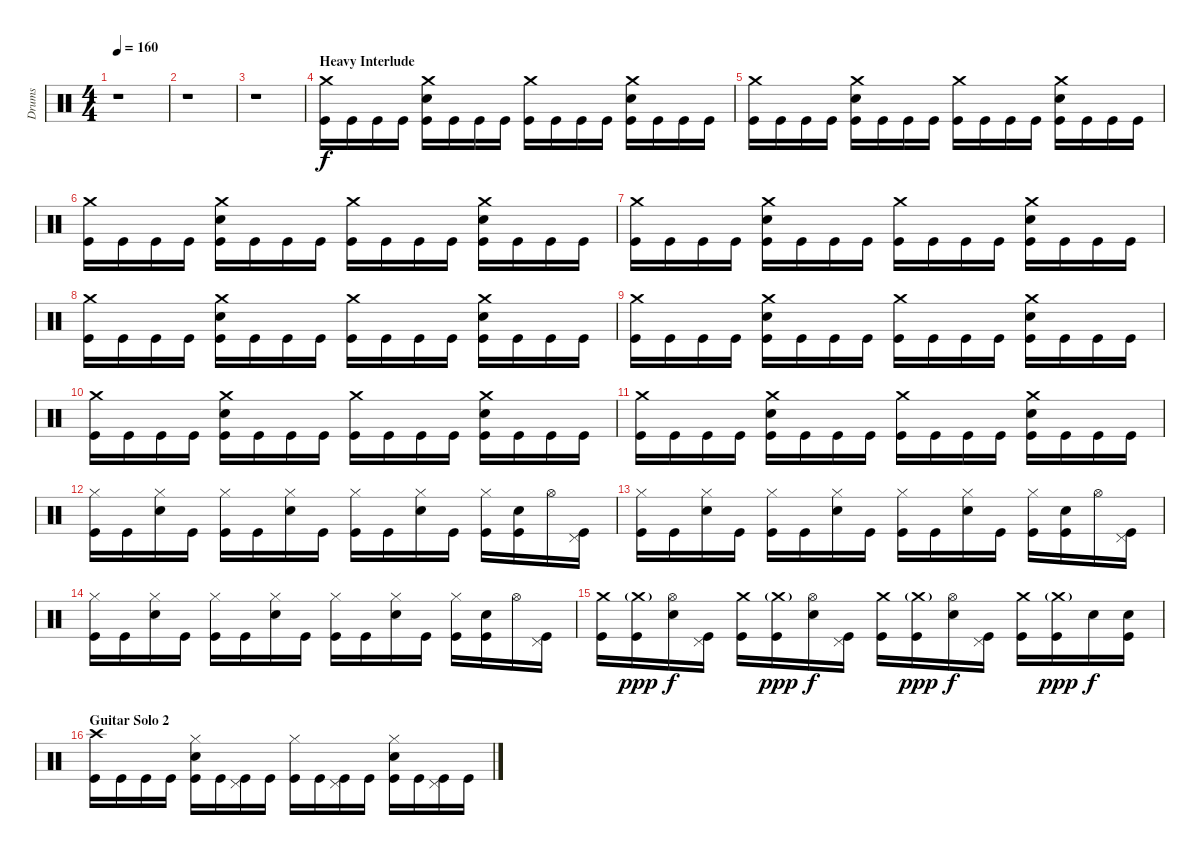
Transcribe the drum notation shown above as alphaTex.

\track ("Drums" "Drums") {instrument percussion}
\staff {score}
\articulation defaults
\ts (4 4)
\tempo 160
\clef neutral
\ks c
r.1{dy ppp} |
r.1 |
r.1 |
\section ("" "Heavy Interlude")
("Crash medium (hit)" "Kick (hit)").16{dy f volume 13} "Kick (hit)".16 "Kick (hit)".16 "Kick (hit)".16 ("Crash medium (hit)" "Electric Snare (hit)" "Kick (hit)").16 "Kick (hit)".16 "Kick (hit)".16 "Kick (hit)".16 ("Crash medium (hit)" "Kick (hit)").16 "Kick (hit)".16 "Kick (hit)".16 "Kick (hit)".16 ("Crash medium (hit)" "Electric Snare (hit)" "Kick (hit)").16 "Kick (hit)".16 "Kick (hit)".16 "Kick (hit)".16 |
("Crash medium (hit)" "Kick (hit)").16 "Kick (hit)".16 "Kick (hit)".16 "Kick (hit)".16 ("Crash medium (hit)" "Electric Snare (hit)" "Kick (hit)").16 "Kick (hit)".16 "Kick (hit)".16 "Kick (hit)".16 ("Crash medium (hit)" "Kick (hit)").16 "Kick (hit)".16 "Kick (hit)".16 "Kick (hit)".16 ("Crash medium (hit)" "Electric Snare (hit)" "Kick (hit)").16 "Kick (hit)".16 "Kick (hit)".16 "Kick (hit)".16 |
("Crash medium (hit)" "Kick (hit)").16 "Kick (hit)".16 "Kick (hit)".16 "Kick (hit)".16 ("Crash medium (hit)" "Electric Snare (hit)" "Kick (hit)").16 "Kick (hit)".16 "Kick (hit)".16 "Kick (hit)".16 ("Crash medium (hit)" "Kick (hit)").16 "Kick (hit)".16 "Kick (hit)".16 "Kick (hit)".16 ("Crash medium (hit)" "Electric Snare (hit)" "Kick (hit)").16 "Kick (hit)".16 "Kick (hit)".16 "Kick (hit)".16 |
("Crash medium (hit)" "Kick (hit)").16 "Kick (hit)".16 "Kick (hit)".16 "Kick (hit)".16 ("Crash medium (hit)" "Electric Snare (hit)" "Kick (hit)").16 "Kick (hit)".16 "Kick (hit)".16 "Kick (hit)".16 ("Crash medium (hit)" "Kick (hit)").16 "Kick (hit)".16 "Kick (hit)".16 "Kick (hit)".16 ("Crash medium (hit)" "Electric Snare (hit)" "Kick (hit)").16 "Kick (hit)".16 "Kick (hit)".16 "Kick (hit)".16 |
("Crash medium (hit)" "Kick (hit)").16 "Kick (hit)".16 "Kick (hit)".16 "Kick (hit)".16 ("Crash medium (hit)" "Electric Snare (hit)" "Kick (hit)").16 "Kick (hit)".16 "Kick (hit)".16 "Kick (hit)".16 ("Crash medium (hit)" "Kick (hit)").16 "Kick (hit)".16 "Kick (hit)".16 "Kick (hit)".16 ("Crash medium (hit)" "Electric Snare (hit)" "Kick (hit)").16 "Kick (hit)".16 "Kick (hit)".16 "Kick (hit)".16 |
("Crash medium (hit)" "Kick (hit)").16 "Kick (hit)".16 "Kick (hit)".16 "Kick (hit)".16 ("Crash medium (hit)" "Electric Snare (hit)" "Kick (hit)").16 "Kick (hit)".16 "Kick (hit)".16 "Kick (hit)".16 ("Crash medium (hit)" "Kick (hit)").16 "Kick (hit)".16 "Kick (hit)".16 "Kick (hit)".16 ("Crash medium (hit)" "Electric Snare (hit)" "Kick (hit)").16 "Kick (hit)".16 "Kick (hit)".16 "Kick (hit)".16 |
("Crash medium (hit)" "Kick (hit)").16 "Kick (hit)".16 "Kick (hit)".16 "Kick (hit)".16 ("Crash medium (hit)" "Electric Snare (hit)" "Kick (hit)").16 "Kick (hit)".16 "Kick (hit)".16 "Kick (hit)".16 ("Crash medium (hit)" "Kick (hit)").16 "Kick (hit)".16 "Kick (hit)".16 "Kick (hit)".16 ("Crash medium (hit)" "Electric Snare (hit)" "Kick (hit)").16 "Kick (hit)".16 "Kick (hit)".16 "Kick (hit)".16 |
("Crash medium (hit)" "Kick (hit)").16 "Kick (hit)".16 "Kick (hit)".16 "Kick (hit)".16 ("Crash medium (hit)" "Electric Snare (hit)" "Kick (hit)").16 "Kick (hit)".16 "Kick (hit)".16 "Kick (hit)".16 ("Crash medium (hit)" "Kick (hit)").16 "Kick (hit)".16 "Kick (hit)".16 "Kick (hit)".16 ("Crash medium (hit)" "Electric Snare (hit)" "Kick (hit)").16 "Kick (hit)".16 "Kick (hit)".16 "Kick (hit)".16 |
("Hi-Hat (closed)" "Kick (hit)").16 "Kick (hit)".16 ("Hi-Hat (closed)" "Electric Snare (hit)").16 "Kick (hit)".16 ("Hi-Hat (closed)" "Kick (hit)").16 "Kick (hit)".16 ("Hi-Hat (closed)" "Electric Snare (hit)").16 "Kick (hit)".16 ("Hi-Hat (closed)" "Kick (hit)").16 "Kick (hit)".16 ("Hi-Hat (closed)" "Electric Snare (hit)").16 "Kick (hit)".16 ("Hi-Hat (closed)" "Kick (hit)").16 ("Electric Snare (hit)" "Kick (hit)").16 "Hi-Hat (open)".16 ("Pedal Hi-Hat (hit)" "Kick (hit)").16 |
("Hi-Hat (closed)" "Kick (hit)").16 "Kick (hit)".16 ("Hi-Hat (closed)" "Electric Snare (hit)").16 "Kick (hit)".16 ("Hi-Hat (closed)" "Kick (hit)").16 "Kick (hit)".16 ("Hi-Hat (closed)" "Electric Snare (hit)").16 "Kick (hit)".16 ("Hi-Hat (closed)" "Kick (hit)").16 "Kick (hit)".16 ("Hi-Hat (closed)" "Electric Snare (hit)").16 "Kick (hit)".16 ("Hi-Hat (closed)" "Kick (hit)").16 ("Electric Snare (hit)" "Kick (hit)").16 "Hi-Hat (open)".16 ("Pedal Hi-Hat (hit)" "Kick (hit)").16 |
("Hi-Hat (closed)" "Kick (hit)").16 "Kick (hit)".16 ("Hi-Hat (closed)" "Electric Snare (hit)").16 "Kick (hit)".16 ("Hi-Hat (closed)" "Kick (hit)").16 "Kick (hit)".16 ("Hi-Hat (closed)" "Electric Snare (hit)").16 "Kick (hit)".16 ("Hi-Hat (closed)" "Kick (hit)").16 "Kick (hit)".16 ("Hi-Hat (closed)" "Electric Snare (hit)").16 "Kick (hit)".16 ("Hi-Hat (closed)" "Kick (hit)").16 ("Electric Snare (hit)" "Kick (hit)").16 "Hi-Hat (open)".16 ("Pedal Hi-Hat (hit)" "Kick (hit)").16 |
("Crash medium (hit)" "Kick (hit)").16 ("Crash medium (hit)"{g} "Kick (hit)").16{dy ppp} ("Hi-Hat (open)" "Electric Snare (hit)").16{dy f} ("Pedal Hi-Hat (hit)" "Kick (hit)").16 ("Crash medium (hit)" "Kick (hit)").16 ("Crash medium (hit)"{g} "Kick (hit)").16{dy ppp} ("Hi-Hat (open)" "Electric Snare (hit)").16{dy f} ("Pedal Hi-Hat (hit)" "Kick (hit)").16 ("Crash medium (hit)" "Kick (hit)").16 ("Crash medium (hit)"{g} "Kick (hit)").16{dy ppp} ("Hi-Hat (open)" "Electric Snare (hit)").16{dy f} ("Pedal Hi-Hat (hit)" "Kick (hit)").16 ("Crash medium (hit)" "Kick (hit)").16 ("Crash medium (hit)"{g} "Kick (hit)").16{dy ppp} "Electric Snare (hit)".16{dy f} ("Electric Snare (hit)" "Kick (hit)").16 |
\section ("" "Guitar Solo 2")
("Crash high (hit)" "Kick (hit)").16 "Kick (hit)".16 "Kick (hit)".16 "Kick (hit)".16 ("Hi-Hat (closed)" "Electric Snare (hit)" "Kick (hit)").16 "Kick (hit)".16 ("Pedal Hi-Hat (hit)" "Kick (hit)").16 "Kick (hit)".16 ("Hi-Hat (closed)" "Kick (hit)").16 "Kick (hit)".16 ("Pedal Hi-Hat (hit)" "Kick (hit)").16 "Kick (hit)".16 ("Hi-Hat (closed)" "Electric Snare (hit)" "Kick (hit)").16 "Kick (hit)".16 ("Pedal Hi-Hat (hit)" "Kick (hit)").16 "Kick (hit)".16
